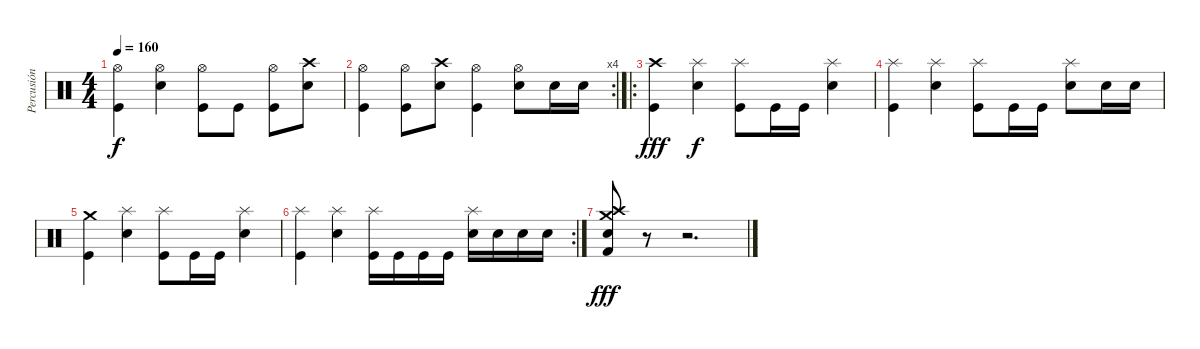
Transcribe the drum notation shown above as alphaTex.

\track ("Percusión" "Percusión") {instrument percussion}
\staff {score}
\articulation defaults
\ts (4 4)
\tempo 160
\clef neutral
\ks c
("Hi-Hat (open)" "Kick (hit)").4{dy f} ("Hi-Hat (open)" "Electric Snare (hit)").4 ("Hi-Hat (open)" "Kick (hit)").8 "Kick (hit)".8 ("Hi-Hat (open)" "Kick (hit)").8 ("Crash high (hit)" "Electric Snare (hit)").8 |
\rc 4
("Hi-Hat (open)" "Kick (hit)").4 ("Hi-Hat (open)" "Kick (hit)").8 ("Crash high (hit)" "Electric Snare (hit)").8 ("Hi-Hat (open)" "Kick (hit)").4 ("Hi-Hat (open)" "Electric Snare (hit)").8 "Electric Snare (hit)".16 "Electric Snare (hit)".16 |
\ro
("Crash high (hit)" "Kick (hit)").4{dy fff} ("Splash (hit)" "Electric Snare (hit)").4{dy f} ("Splash (hit)" "Kick (hit)").8 "Kick (hit)".16 "Kick (hit)".16 ("Splash (hit)" "Electric Snare (hit)").4 |
("Splash (hit)" "Kick (hit)").4 ("Splash (hit)" "Electric Snare (hit)").4 ("Splash (hit)" "Kick (hit)").8 "Kick (hit)".16 "Kick (hit)".16 ("Splash (hit)" "Electric Snare (hit)").8 "Electric Snare (hit)".16 "Electric Snare (hit)".16 |
("Crash medium (hit)" "Kick (hit)").4 ("Splash (hit)" "Electric Snare (hit)").4 ("Splash (hit)" "Kick (hit)").8 "Kick (hit)".16 "Kick (hit)".16 ("Splash (hit)" "Electric Snare (hit)").4 |
\rc 2
("Splash (hit)" "Kick (hit)").4 ("Splash (hit)" "Electric Snare (hit)").4 ("Splash (hit)" "Kick (hit)").16 "Kick (hit)".16 "Kick (hit)".16 "Kick (hit)".16 ("Splash (hit)" "Electric Snare (hit)").16 "Electric Snare (hit)".16 "Electric Snare (hit)".16 "Electric Snare (hit)".16 |
("Crash medium (hit)" "Crash high (hit)" "Electric Snare (hit)" "Kick (hit) 2").8{dy fff} r.8 r.2{d}
